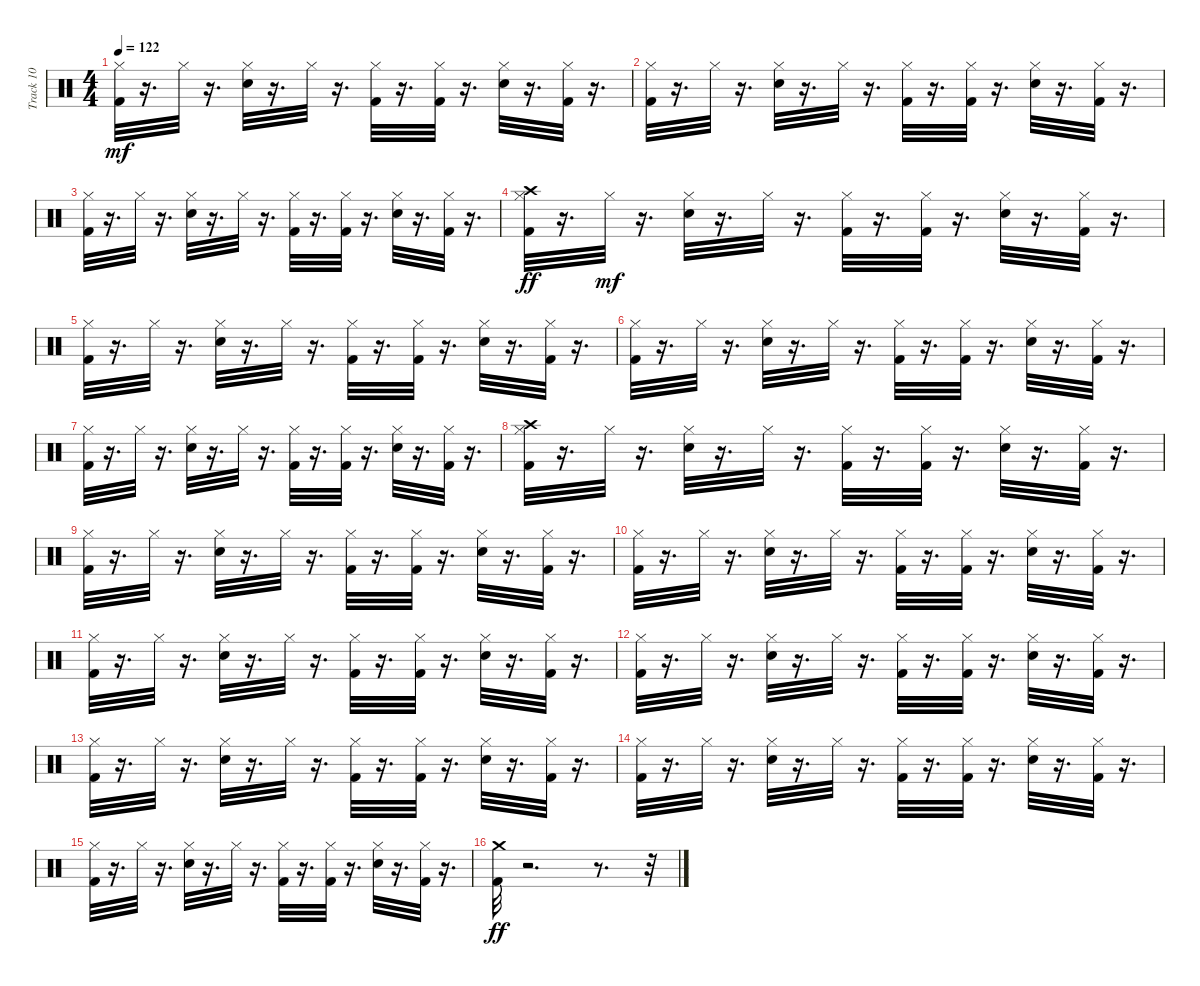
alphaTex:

\track ("Track 10" "Track 10") {instrument percussion}
\staff {score}
\articulation defaults
\ts (4 4)
\tempo 122
\clef neutral
\ks c
("Kick (hit) 2" "Hi-Hat (closed)").32{dy mf} r.16{d} "Hi-Hat (closed)".32 r.16{d} ("Electric Snare (hit)" "Hi-Hat (closed)").32 r.16{d} "Hi-Hat (closed)".32 r.16{d} ("Kick (hit) 2" "Hi-Hat (closed)").32 r.16{d} ("Kick (hit) 2" "Hi-Hat (closed)").32 r.16{d} ("Electric Snare (hit)" "Hi-Hat (closed)").32 r.16{d} ("Kick (hit) 2" "Hi-Hat (closed)").32 r.16{d} |
("Kick (hit) 2" "Hi-Hat (closed)").32 r.16{d} "Hi-Hat (closed)".32 r.16{d} ("Electric Snare (hit)" "Hi-Hat (closed)").32 r.16{d} "Hi-Hat (closed)".32 r.16{d} ("Kick (hit) 2" "Hi-Hat (closed)").32 r.16{d} ("Kick (hit) 2" "Hi-Hat (closed)").32 r.16{d} ("Electric Snare (hit)" "Hi-Hat (closed)").32 r.16{d} ("Kick (hit) 2" "Hi-Hat (closed)").32 r.16{d} |
("Kick (hit) 2" "Hi-Hat (closed)").32 r.16{d} "Hi-Hat (closed)".32 r.16{d} ("Electric Snare (hit)" "Hi-Hat (closed)").32 r.16{d} "Hi-Hat (closed)".32 r.16{d} ("Kick (hit) 2" "Hi-Hat (closed)").32 r.16{d} ("Kick (hit) 2" "Hi-Hat (closed)").32 r.16{d} ("Electric Snare (hit)" "Hi-Hat (closed)").32 r.16{d} ("Kick (hit) 2" "Hi-Hat (closed)").32 r.16{d} |
("Kick (hit) 2" "Hi-Hat (closed)" "Crash high (hit)").32{dy ff} r.16{d} "Hi-Hat (closed)".32{dy mf} r.16{d} ("Electric Snare (hit)" "Hi-Hat (closed)").32 r.16{d} "Hi-Hat (closed)".32 r.16{d} ("Kick (hit) 2" "Hi-Hat (closed)").32 r.16{d} ("Kick (hit) 2" "Hi-Hat (closed)").32 r.16{d} ("Electric Snare (hit)" "Hi-Hat (closed)").32 r.16{d} ("Kick (hit) 2" "Hi-Hat (closed)").32 r.16{d} |
("Kick (hit) 2" "Hi-Hat (closed)").32 r.16{d} "Hi-Hat (closed)".32 r.16{d} ("Electric Snare (hit)" "Hi-Hat (closed)").32 r.16{d} "Hi-Hat (closed)".32 r.16{d} ("Kick (hit) 2" "Hi-Hat (closed)").32 r.16{d} ("Kick (hit) 2" "Hi-Hat (closed)").32 r.16{d} ("Electric Snare (hit)" "Hi-Hat (closed)").32 r.16{d} ("Kick (hit) 2" "Hi-Hat (closed)").32 r.16{d} |
("Kick (hit) 2" "Hi-Hat (closed)").32 r.16{d} "Hi-Hat (closed)".32 r.16{d} ("Electric Snare (hit)" "Hi-Hat (closed)").32 r.16{d} "Hi-Hat (closed)".32 r.16{d} ("Kick (hit) 2" "Hi-Hat (closed)").32 r.16{d} ("Kick (hit) 2" "Hi-Hat (closed)").32 r.16{d} ("Electric Snare (hit)" "Hi-Hat (closed)").32 r.16{d} ("Kick (hit) 2" "Hi-Hat (closed)").32 r.16{d} |
("Kick (hit) 2" "Hi-Hat (closed)").32 r.16{d} "Hi-Hat (closed)".32 r.16{d} ("Electric Snare (hit)" "Hi-Hat (closed)").32 r.16{d} "Hi-Hat (closed)".32 r.16{d} ("Kick (hit) 2" "Hi-Hat (closed)").32 r.16{d} ("Kick (hit) 2" "Hi-Hat (closed)").32 r.16{d} ("Electric Snare (hit)" "Hi-Hat (closed)").32 r.16{d} ("Kick (hit) 2" "Hi-Hat (closed)").32 r.16{d} |
("Kick (hit) 2" "Hi-Hat (closed)" "Crash high (hit)").32 r.16{d} "Hi-Hat (closed)".32 r.16{d} ("Electric Snare (hit)" "Hi-Hat (closed)").32 r.16{d} "Hi-Hat (closed)".32 r.16{d} ("Kick (hit) 2" "Hi-Hat (closed)").32 r.16{d} ("Kick (hit) 2" "Hi-Hat (closed)").32 r.16{d} ("Electric Snare (hit)" "Hi-Hat (closed)").32 r.16{d} ("Kick (hit) 2" "Hi-Hat (closed)").32 r.16{d} |
("Kick (hit) 2" "Hi-Hat (closed)").32 r.16{d} "Hi-Hat (closed)".32 r.16{d} ("Electric Snare (hit)" "Hi-Hat (closed)").32 r.16{d} "Hi-Hat (closed)".32 r.16{d} ("Kick (hit) 2" "Hi-Hat (closed)").32 r.16{d} ("Kick (hit) 2" "Hi-Hat (closed)").32 r.16{d} ("Electric Snare (hit)" "Hi-Hat (closed)").32 r.16{d} ("Kick (hit) 2" "Hi-Hat (closed)").32 r.16{d} |
("Kick (hit) 2" "Hi-Hat (closed)").32 r.16{d} "Hi-Hat (closed)".32 r.16{d} ("Electric Snare (hit)" "Hi-Hat (closed)").32 r.16{d} "Hi-Hat (closed)".32 r.16{d} ("Kick (hit) 2" "Hi-Hat (closed)").32 r.16{d} ("Kick (hit) 2" "Hi-Hat (closed)").32 r.16{d} ("Electric Snare (hit)" "Hi-Hat (closed)").32 r.16{d} ("Kick (hit) 2" "Hi-Hat (closed)").32 r.16{d} |
("Kick (hit) 2" "Hi-Hat (closed)").32 r.16{d} "Hi-Hat (closed)".32 r.16{d} ("Electric Snare (hit)" "Hi-Hat (closed)").32 r.16{d} "Hi-Hat (closed)".32 r.16{d} ("Kick (hit) 2" "Hi-Hat (closed)").32 r.16{d} ("Kick (hit) 2" "Hi-Hat (closed)").32 r.16{d} ("Electric Snare (hit)" "Hi-Hat (closed)").32 r.16{d} ("Kick (hit) 2" "Hi-Hat (closed)").32 r.16{d} |
("Kick (hit) 2" "Hi-Hat (closed)").32 r.16{d} "Hi-Hat (closed)".32 r.16{d} ("Electric Snare (hit)" "Hi-Hat (closed)").32 r.16{d} "Hi-Hat (closed)".32 r.16{d} ("Kick (hit) 2" "Hi-Hat (closed)").32 r.16{d} ("Kick (hit) 2" "Hi-Hat (closed)").32 r.16{d} ("Electric Snare (hit)" "Hi-Hat (closed)").32 r.16{d} ("Kick (hit) 2" "Hi-Hat (closed)").32 r.16{d} |
("Kick (hit) 2" "Hi-Hat (closed)").32 r.16{d} "Hi-Hat (closed)".32 r.16{d} ("Electric Snare (hit)" "Hi-Hat (closed)").32 r.16{d} "Hi-Hat (closed)".32 r.16{d} ("Kick (hit) 2" "Hi-Hat (closed)").32 r.16{d} ("Kick (hit) 2" "Hi-Hat (closed)").32 r.16{d} ("Electric Snare (hit)" "Hi-Hat (closed)").32 r.16{d} ("Kick (hit) 2" "Hi-Hat (closed)").32 r.16{d} |
("Kick (hit) 2" "Hi-Hat (closed)").32 r.16{d} "Hi-Hat (closed)".32 r.16{d} ("Electric Snare (hit)" "Hi-Hat (closed)").32 r.16{d} "Hi-Hat (closed)".32 r.16{d} ("Kick (hit) 2" "Hi-Hat (closed)").32 r.16{d} ("Kick (hit) 2" "Hi-Hat (closed)").32 r.16{d} ("Electric Snare (hit)" "Hi-Hat (closed)").32 r.16{d} ("Kick (hit) 2" "Hi-Hat (closed)").32 r.16{d} |
("Kick (hit) 2" "Hi-Hat (closed)").32 r.16{d} "Hi-Hat (closed)".32 r.16{d} ("Electric Snare (hit)" "Hi-Hat (closed)").32 r.16{d} "Hi-Hat (closed)".32 r.16{d} ("Kick (hit) 2" "Hi-Hat (closed)").32 r.16{d} ("Kick (hit) 2" "Hi-Hat (closed)").32 r.16{d} ("Electric Snare (hit)" "Hi-Hat (closed)").32 r.16{d} ("Kick (hit) 2" "Hi-Hat (closed)").32 r.16{d} |
("Kick (hit) 2" "Crash medium (hit)").32{dy ff} r.2{d} r.8{d} r.32
